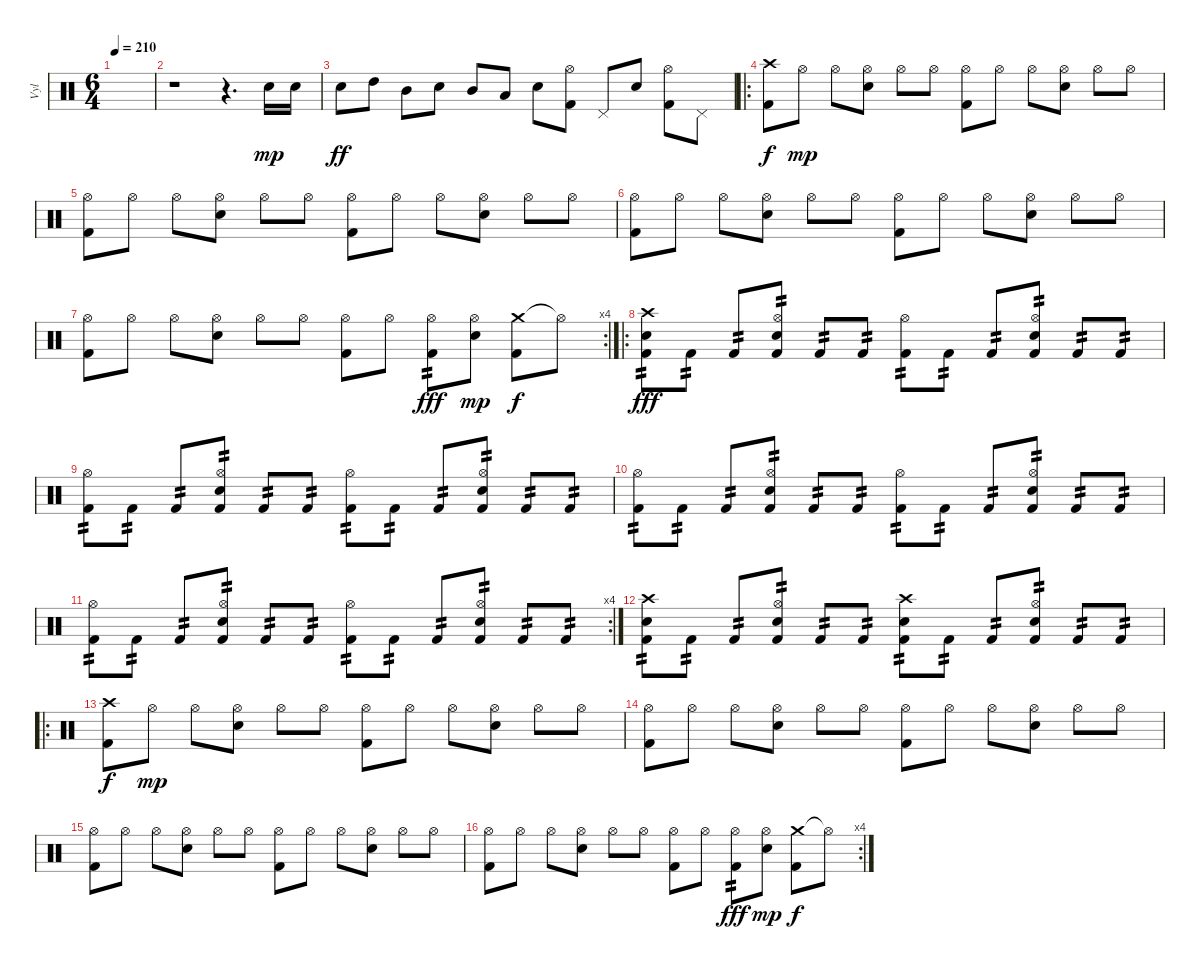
\track ("Vyl" "Vyl") {instrument percussion}
\staff {score}
\articulation defaults
\ts (6 4)
\tempo 210
\clef neutral
\ks c
|
r.1 r.4{d} "Snare (hit) 2".16{dy mp} "Snare (hit) 2".16 |
"Snare (hit) 2".8{dy ff} "High Tom (hit)".8 "Mid Tom (hit)".8 "Snare (hit) 2".8 "Mid Tom (hit)".8 "Low Tom (hit)".8 "Snare (hit) 2".8 ("Hi-Hat (open)" "Kick (hit) 2").8 "Pedal Hi-Hat (hit)".8 "Snare (hit) 2".8 ("Kick (hit) 2" "Hi-Hat (open)").8 "Pedal Hi-Hat (hit)".8 |
\ro
("Crash high (hit)" "Kick (hit) 2").8{dy f} "Hi-Hat (open)".8{dy mp} "Hi-Hat (open)".8 ("Hi-Hat (open)" "Snare (hit) 2").8 "Hi-Hat (open)".8 "Hi-Hat (open)".8 ("Hi-Hat (open)" "Kick (hit) 2").8 "Hi-Hat (open)".8 "Hi-Hat (open)".8 ("Hi-Hat (open)" "Snare (hit) 2").8 "Hi-Hat (open)".8 "Hi-Hat (open)".8 |
("Hi-Hat (open)" "Kick (hit) 2").8 "Hi-Hat (open)".8 "Hi-Hat (open)".8 ("Hi-Hat (open)" "Snare (hit) 2").8 "Hi-Hat (open)".8 "Hi-Hat (open)".8 ("Hi-Hat (open)" "Kick (hit) 2").8 "Hi-Hat (open)".8 "Hi-Hat (open)".8 ("Hi-Hat (open)" "Snare (hit) 2").8 "Hi-Hat (open)".8 "Hi-Hat (open)".8 |
("Hi-Hat (open)" "Kick (hit) 2").8 "Hi-Hat (open)".8 "Hi-Hat (open)".8 ("Hi-Hat (open)" "Snare (hit) 2").8 "Hi-Hat (open)".8 "Hi-Hat (open)".8 ("Hi-Hat (open)" "Kick (hit) 2").8 "Hi-Hat (open)".8 "Hi-Hat (open)".8 ("Hi-Hat (open)" "Snare (hit) 2").8 "Hi-Hat (open)".8 "Hi-Hat (open)".8 |
\rc 4
("Hi-Hat (open)" "Kick (hit) 2").8 "Hi-Hat (open)".8 "Hi-Hat (open)".8 ("Hi-Hat (open)" "Snare (hit) 2").8 "Hi-Hat (open)".8 "Hi-Hat (open)".8 ("Hi-Hat (open)" "Kick (hit) 2").8 "Hi-Hat (open)".8 ("Hi-Hat (open)" "Kick (hit) 2").8{tp 2 dy fff} ("Hi-Hat (open)" "Snare (hit) 2").8{dy mp} ("Crash medium (hit)" "Kick (hit) 2").8{dy f} "Hi-Hat (open)"{t}.8 |
\ro
("Crash high (hit)" "Snare (hit) 2" "Kick (hit) 2").8{tp 2 dy fff} "Kick (hit) 2".8{tp 2} "Kick (hit) 2".8{tp 2} ("Hi-Hat (open)" "Snare (hit) 2" "Kick (hit) 2").8{tp 2} "Kick (hit) 2".8{tp 2} "Kick (hit) 2".8{tp 2} ("Hi-Hat (open)" "Kick (hit) 2").8{tp 2} "Kick (hit) 2".8{tp 2} "Kick (hit) 2".8{tp 2} ("Hi-Hat (open)" "Snare (hit) 2" "Kick (hit) 2").8{tp 2} "Kick (hit) 2".8{tp 2} "Kick (hit) 2".8{tp 2} |
("Hi-Hat (open)" "Kick (hit) 2").8{tp 2} "Kick (hit) 2".8{tp 2} "Kick (hit) 2".8{tp 2} ("Hi-Hat (open)" "Snare (hit) 2" "Kick (hit) 2").8{tp 2} "Kick (hit) 2".8{tp 2} "Kick (hit) 2".8{tp 2} ("Hi-Hat (open)" "Kick (hit) 2").8{tp 2} "Kick (hit) 2".8{tp 2} "Kick (hit) 2".8{tp 2} ("Hi-Hat (open)" "Snare (hit) 2" "Kick (hit) 2").8{tp 2} "Kick (hit) 2".8{tp 2} "Kick (hit) 2".8{tp 2} |
("Hi-Hat (open)" "Kick (hit) 2").8{tp 2} "Kick (hit) 2".8{tp 2} "Kick (hit) 2".8{tp 2} ("Hi-Hat (open)" "Snare (hit) 2" "Kick (hit) 2").8{tp 2} "Kick (hit) 2".8{tp 2} "Kick (hit) 2".8{tp 2} ("Hi-Hat (open)" "Kick (hit) 2").8{tp 2} "Kick (hit) 2".8{tp 2} "Kick (hit) 2".8{tp 2} ("Hi-Hat (open)" "Snare (hit) 2" "Kick (hit) 2").8{tp 2} "Kick (hit) 2".8{tp 2} "Kick (hit) 2".8{tp 2} |
\rc 4
("Hi-Hat (open)" "Kick (hit) 2").8{tp 2} "Kick (hit) 2".8{tp 2} "Kick (hit) 2".8{tp 2} ("Hi-Hat (open)" "Snare (hit) 2" "Kick (hit) 2").8{tp 2} "Kick (hit) 2".8{tp 2} "Kick (hit) 2".8{tp 2} ("Hi-Hat (open)" "Kick (hit) 2").8{tp 2} "Kick (hit) 2".8{tp 2} "Kick (hit) 2".8{tp 2} ("Hi-Hat (open)" "Snare (hit) 2" "Kick (hit) 2").8{tp 2} "Kick (hit) 2".8{tp 2} "Kick (hit) 2".8{tp 2} |
("Crash high (hit)" "Snare (hit) 2" "Kick (hit) 2").8{tp 2} "Kick (hit) 2".8{tp 2} "Kick (hit) 2".8{tp 2} ("Hi-Hat (open)" "Snare (hit) 2" "Kick (hit) 2").8{tp 2} "Kick (hit) 2".8{tp 2} "Kick (hit) 2".8{tp 2} ("Crash high (hit)" "Snare (hit) 2" "Kick (hit) 2").8{tp 2} "Kick (hit) 2".8{tp 2} "Kick (hit) 2".8{tp 2} ("Hi-Hat (open)" "Snare (hit) 2" "Kick (hit) 2").8{tp 2} "Kick (hit) 2".8{tp 2} "Kick (hit) 2".8{tp 2} |
\ro
("Crash high (hit)" "Kick (hit) 2").8{dy f} "Hi-Hat (open)".8{dy mp} "Hi-Hat (open)".8 ("Hi-Hat (open)" "Snare (hit) 2").8 "Hi-Hat (open)".8 "Hi-Hat (open)".8 ("Hi-Hat (open)" "Kick (hit) 2").8 "Hi-Hat (open)".8 "Hi-Hat (open)".8 ("Hi-Hat (open)" "Snare (hit) 2").8 "Hi-Hat (open)".8 "Hi-Hat (open)".8 |
("Hi-Hat (open)" "Kick (hit) 2").8 "Hi-Hat (open)".8 "Hi-Hat (open)".8 ("Hi-Hat (open)" "Snare (hit) 2").8 "Hi-Hat (open)".8 "Hi-Hat (open)".8 ("Hi-Hat (open)" "Kick (hit) 2").8 "Hi-Hat (open)".8 "Hi-Hat (open)".8 ("Hi-Hat (open)" "Snare (hit) 2").8 "Hi-Hat (open)".8 "Hi-Hat (open)".8 |
("Hi-Hat (open)" "Kick (hit) 2").8 "Hi-Hat (open)".8 "Hi-Hat (open)".8 ("Hi-Hat (open)" "Snare (hit) 2").8 "Hi-Hat (open)".8 "Hi-Hat (open)".8 ("Hi-Hat (open)" "Kick (hit) 2").8 "Hi-Hat (open)".8 "Hi-Hat (open)".8 ("Hi-Hat (open)" "Snare (hit) 2").8 "Hi-Hat (open)".8 "Hi-Hat (open)".8 |
\rc 4
("Hi-Hat (open)" "Kick (hit) 2").8 "Hi-Hat (open)".8 "Hi-Hat (open)".8 ("Hi-Hat (open)" "Snare (hit) 2").8 "Hi-Hat (open)".8 "Hi-Hat (open)".8 ("Hi-Hat (open)" "Kick (hit) 2").8 "Hi-Hat (open)".8 ("Hi-Hat (open)" "Kick (hit) 2").8{tp 2 dy fff} ("Hi-Hat (open)" "Snare (hit) 2").8{dy mp} ("Crash medium (hit)" "Kick (hit) 2").8{dy f} "Hi-Hat (open)"{t}.8
